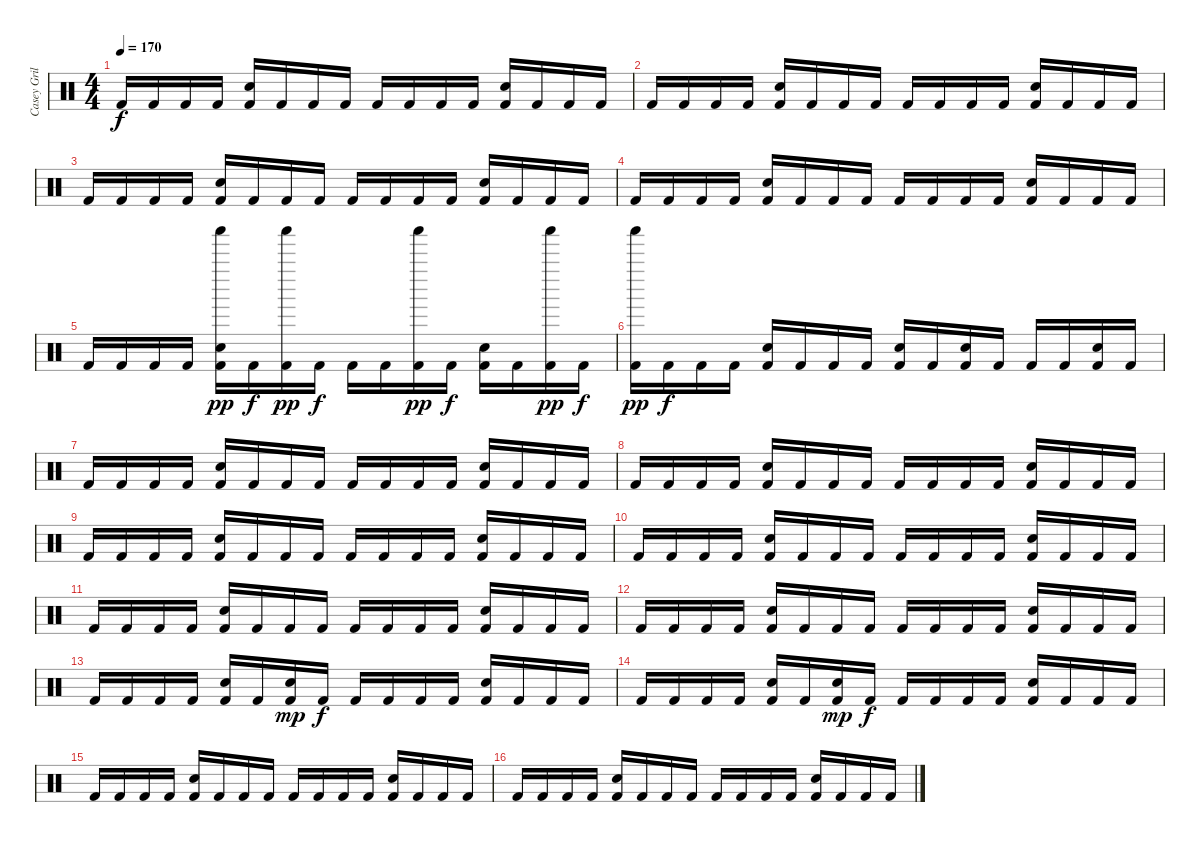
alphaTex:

\track ("Casey Grillo" "Casey Gril") {instrument percussion}
\staff {score}
\articulation defaults
\ts (4 4)
\tempo 170
\clef neutral
\ks c "Kick (hit) 2".16{dy f} "Kick (hit) 2".16 "Kick (hit) 2".16 "Kick (hit) 2".16
("Snare (hit) 2" "Kick (hit) 2").16 "Kick (hit) 2".16 "Kick (hit) 2".16 "Kick (hit) 2".16 "Kick (hit) 2".16 "Kick (hit) 2".16 "Kick (hit) 2".16 "Kick (hit) 2".16 ("Snare (hit) 2" "Kick (hit) 2").16 "Kick (hit) 2".16 "Kick (hit) 2".16 "Kick (hit) 2".16 |
"Kick (hit) 2".16 "Kick (hit) 2".16 "Kick (hit) 2".16 "Kick (hit) 2".16 ("Snare (hit) 2" "Kick (hit) 2").16 "Kick (hit) 2".16 "Kick (hit) 2".16 "Kick (hit) 2".16 "Kick (hit) 2".16 "Kick (hit) 2".16 "Kick (hit) 2".16 "Kick (hit) 2".16 ("Snare (hit) 2" "Kick (hit) 2").16 "Kick (hit) 2".16 "Kick (hit) 2".16 "Kick (hit) 2".16 |
"Kick (hit) 2".16 "Kick (hit) 2".16 "Kick (hit) 2".16 "Kick (hit) 2".16 ("Snare (hit) 2" "Kick (hit) 2").16 "Kick (hit) 2".16 "Kick (hit) 2".16 "Kick (hit) 2".16 "Kick (hit) 2".16 "Kick (hit) 2".16 "Kick (hit) 2".16 "Kick (hit) 2".16 ("Snare (hit) 2" "Kick (hit) 2").16 "Kick (hit) 2".16 "Kick (hit) 2".16 "Kick (hit) 2".16 |
"Kick (hit) 2".16 "Kick (hit) 2".16 "Kick (hit) 2".16 "Kick (hit) 2".16 ("Snare (hit) 2" "Kick (hit) 2").16 "Kick (hit) 2".16 "Kick (hit) 2".16 "Kick (hit) 2".16 "Kick (hit) 2".16 "Kick (hit) 2".16 "Kick (hit) 2".16 "Kick (hit) 2".16 ("Snare (hit) 2" "Kick (hit) 2").16 "Kick (hit) 2".16 "Kick (hit) 2".16 "Kick (hit) 2".16 |
"Kick (hit) 2".16 "Kick (hit) 2".16 "Kick (hit) 2".16 "Kick (hit) 2".16 ("Snare (hit) 2" "Kick (hit) 2" "Shaker (hit)").16{dy pp} "Kick (hit) 2".16{dy f} ("Kick (hit) 2" "Shaker (hit)").16{dy pp} "Kick (hit) 2".16{dy f} "Kick (hit) 2".16 "Kick (hit) 2".16 ("Kick (hit) 2" "Shaker (hit)").16{dy pp} "Kick (hit) 2".16{dy f} ("Snare (hit) 2" "Kick (hit) 2").16 "Kick (hit) 2".16 ("Kick (hit) 2" "Shaker (hit)").16{dy pp} "Kick (hit) 2".16{dy f} |
("Kick (hit) 2" "Shaker (hit)").16{dy pp} "Kick (hit) 2".16{dy f} "Kick (hit) 2".16 "Kick (hit) 2".16 ("Snare (hit) 2" "Kick (hit) 2").16 "Kick (hit) 2".16 "Kick (hit) 2".16 "Kick (hit) 2".16 ("Snare (hit) 2" "Kick (hit) 2").16 "Kick (hit) 2".16 ("Snare (hit) 2" "Kick (hit) 2").16 "Kick (hit) 2".16 "Kick (hit) 2".16 "Kick (hit) 2".16 ("Snare (hit) 2" "Kick (hit) 2").16 "Kick (hit) 2".16 |
"Kick (hit) 2".16 "Kick (hit) 2".16 "Kick (hit) 2".16 "Kick (hit) 2".16 ("Snare (hit) 2" "Kick (hit) 2").16 "Kick (hit) 2".16 "Kick (hit) 2".16 "Kick (hit) 2".16 "Kick (hit) 2".16 "Kick (hit) 2".16 "Kick (hit) 2".16 "Kick (hit) 2".16 ("Snare (hit) 2" "Kick (hit) 2").16 "Kick (hit) 2".16 "Kick (hit) 2".16 "Kick (hit) 2".16 |
"Kick (hit) 2".16 "Kick (hit) 2".16 "Kick (hit) 2".16 "Kick (hit) 2".16 ("Snare (hit) 2" "Kick (hit) 2").16 "Kick (hit) 2".16 "Kick (hit) 2".16 "Kick (hit) 2".16 "Kick (hit) 2".16 "Kick (hit) 2".16 "Kick (hit) 2".16 "Kick (hit) 2".16 ("Snare (hit) 2" "Kick (hit) 2").16 "Kick (hit) 2".16 "Kick (hit) 2".16 "Kick (hit) 2".16 |
"Kick (hit) 2".16 "Kick (hit) 2".16 "Kick (hit) 2".16 "Kick (hit) 2".16 ("Snare (hit) 2" "Kick (hit) 2").16 "Kick (hit) 2".16 "Kick (hit) 2".16 "Kick (hit) 2".16 "Kick (hit) 2".16 "Kick (hit) 2".16 "Kick (hit) 2".16 "Kick (hit) 2".16 ("Snare (hit) 2" "Kick (hit) 2").16 "Kick (hit) 2".16 "Kick (hit) 2".16 "Kick (hit) 2".16 |
"Kick (hit) 2".16 "Kick (hit) 2".16 "Kick (hit) 2".16 "Kick (hit) 2".16 ("Snare (hit) 2" "Kick (hit) 2").16 "Kick (hit) 2".16 "Kick (hit) 2".16 "Kick (hit) 2".16 "Kick (hit) 2".16 "Kick (hit) 2".16 "Kick (hit) 2".16 "Kick (hit) 2".16 ("Snare (hit) 2" "Kick (hit) 2").16 "Kick (hit) 2".16 "Kick (hit) 2".16 "Kick (hit) 2".16 |
"Kick (hit) 2".16 "Kick (hit) 2".16 "Kick (hit) 2".16 "Kick (hit) 2".16 ("Snare (hit) 2" "Kick (hit) 2").16 "Kick (hit) 2".16 "Kick (hit) 2".16 "Kick (hit) 2".16 "Kick (hit) 2".16 "Kick (hit) 2".16 "Kick (hit) 2".16 "Kick (hit) 2".16 ("Snare (hit) 2" "Kick (hit) 2").16 "Kick (hit) 2".16 "Kick (hit) 2".16 "Kick (hit) 2".16 |
"Kick (hit) 2".16 "Kick (hit) 2".16 "Kick (hit) 2".16 "Kick (hit) 2".16 ("Snare (hit) 2" "Kick (hit) 2").16 "Kick (hit) 2".16 "Kick (hit) 2".16 "Kick (hit) 2".16 "Kick (hit) 2".16 "Kick (hit) 2".16 "Kick (hit) 2".16 "Kick (hit) 2".16 ("Snare (hit) 2" "Kick (hit) 2").16 "Kick (hit) 2".16 "Kick (hit) 2".16 "Kick (hit) 2".16 |
"Kick (hit) 2".16 "Kick (hit) 2".16 "Kick (hit) 2".16 "Kick (hit) 2".16 ("Snare (hit) 2" "Kick (hit) 2").16 "Kick (hit) 2".16 ("Snare (hit) 2" "Kick (hit) 2").16{dy mp} "Kick (hit) 2".16{dy f} "Kick (hit) 2".16 "Kick (hit) 2".16 "Kick (hit) 2".16 "Kick (hit) 2".16 ("Snare (hit) 2" "Kick (hit) 2").16 "Kick (hit) 2".16 "Kick (hit) 2".16 "Kick (hit) 2".16 |
"Kick (hit) 2".16 "Kick (hit) 2".16 "Kick (hit) 2".16 "Kick (hit) 2".16 ("Snare (hit) 2" "Kick (hit) 2").16 "Kick (hit) 2".16 ("Snare (hit) 2" "Kick (hit) 2").16{dy mp} "Kick (hit) 2".16{dy f} "Kick (hit) 2".16 "Kick (hit) 2".16 "Kick (hit) 2".16 "Kick (hit) 2".16 ("Snare (hit) 2" "Kick (hit) 2").16 "Kick (hit) 2".16 "Kick (hit) 2".16 "Kick (hit) 2".16 |
"Kick (hit) 2".16 "Kick (hit) 2".16 "Kick (hit) 2".16 "Kick (hit) 2".16 ("Snare (hit) 2" "Kick (hit) 2").16 "Kick (hit) 2".16 "Kick (hit) 2".16 "Kick (hit) 2".16 "Kick (hit) 2".16 "Kick (hit) 2".16 "Kick (hit) 2".16 "Kick (hit) 2".16 ("Snare (hit) 2" "Kick (hit) 2").16 "Kick (hit) 2".16 "Kick (hit) 2".16 "Kick (hit) 2".16 |
"Kick (hit) 2".16 "Kick (hit) 2".16 "Kick (hit) 2".16 "Kick (hit) 2".16 ("Snare (hit) 2" "Kick (hit) 2").16 "Kick (hit) 2".16 "Kick (hit) 2".16 "Kick (hit) 2".16 "Kick (hit) 2".16 "Kick (hit) 2".16 "Kick (hit) 2".16 "Kick (hit) 2".16 ("Snare (hit) 2" "Kick (hit) 2").16 "Kick (hit) 2".16 "Kick (hit) 2".16 "Kick (hit) 2".16
